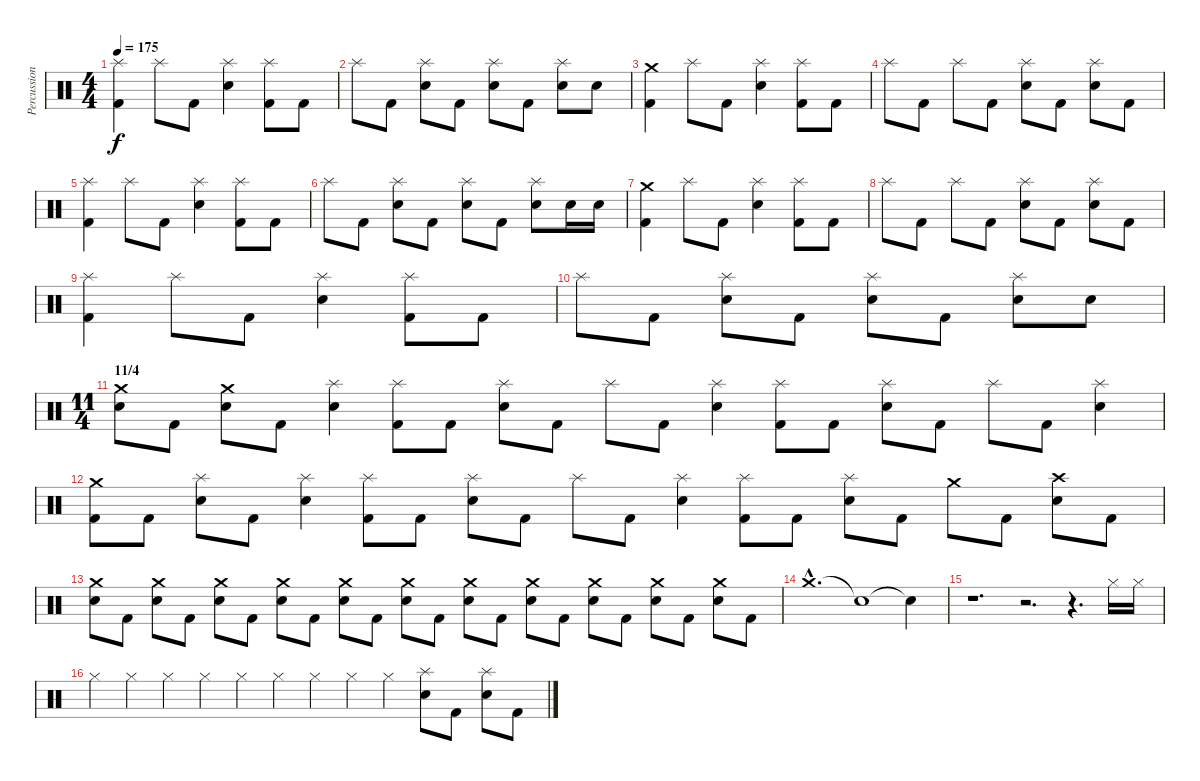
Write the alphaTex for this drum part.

\track ("Percussion" "Percussion") {instrument percussion}
\staff {score}
\articulation defaults
\ts (4 4)
\tempo 175
\clef neutral
\ks c
("Splash (hit)" "Kick (hit) 2").4{dy f} "Splash (hit)".8 "Kick (hit) 2".8 ("Splash (hit)" "Electric Snare (hit)").4 ("Splash (hit)" "Kick (hit) 2").8 "Kick (hit) 2".8 |
"Splash (hit)".8 "Kick (hit) 2".8 ("Splash (hit)" "Electric Snare (hit)").8 "Kick (hit) 2".8 ("Splash (hit)" "Electric Snare (hit)").8 "Kick (hit) 2".8 ("Splash (hit)" "Electric Snare (hit)").8 "Electric Snare (hit)".8 |
("Crash medium (hit)" "Kick (hit) 2").4 "Splash (hit)".8 "Kick (hit) 2".8 ("Splash (hit)" "Electric Snare (hit)").4 ("Splash (hit)" "Kick (hit) 2").8 "Kick (hit) 2".8 |
"Splash (hit)".8 "Kick (hit) 2".8 "Splash (hit)".8 "Kick (hit) 2".8 ("Splash (hit)" "Electric Snare (hit)").8 "Kick (hit) 2".8 ("Splash (hit)" "Electric Snare (hit)").8 "Kick (hit) 2".8 |
("Splash (hit)" "Kick (hit) 2").4 "Splash (hit)".8 "Kick (hit) 2".8 ("Splash (hit)" "Electric Snare (hit)").4 ("Splash (hit)" "Kick (hit) 2").8 "Kick (hit) 2".8 |
"Splash (hit)".8 "Kick (hit) 2".8 ("Splash (hit)" "Electric Snare (hit)").8 "Kick (hit) 2".8 ("Splash (hit)" "Electric Snare (hit)").8 "Kick (hit) 2".8 ("Splash (hit)" "Electric Snare (hit)").8 "Electric Snare (hit)".16 "Electric Snare (hit)".16 |
("Crash medium (hit)" "Kick (hit) 2").4 "Splash (hit)".8 "Kick (hit) 2".8 ("Splash (hit)" "Electric Snare (hit)").4 ("Splash (hit)" "Kick (hit) 2").8 "Kick (hit) 2".8 |
"Splash (hit)".8 "Kick (hit) 2".8 "Splash (hit)".8 "Kick (hit) 2".8 ("Splash (hit)" "Electric Snare (hit)").8 "Kick (hit) 2".8 ("Splash (hit)" "Electric Snare (hit)").8 "Kick (hit) 2".8 |
("Splash (hit)" "Kick (hit) 2").4 "Splash (hit)".8 "Kick (hit) 2".8 ("Splash (hit)" "Electric Snare (hit)").4 ("Splash (hit)" "Kick (hit) 2").8 "Kick (hit) 2".8 |
"Splash (hit)".8 "Kick (hit) 2".8 ("Splash (hit)" "Electric Snare (hit)").8 "Kick (hit) 2".8 ("Splash (hit)" "Electric Snare (hit)").8 "Kick (hit) 2".8 ("Splash (hit)" "Electric Snare (hit)").8 "Electric Snare (hit)".8 |
\ts (11 4)
\section ("" "11/4")
("Crash medium (hit)" "Electric Snare (hit)").8 "Kick (hit) 2".8 ("Crash medium (hit)" "Electric Snare (hit)").8 "Kick (hit) 2".8 ("Splash (hit)" "Electric Snare (hit)").4 ("Splash (hit)" "Kick (hit) 2").8 "Kick (hit) 2".8 ("Splash (hit)" "Electric Snare (hit)").8 "Kick (hit) 2".8 "Splash (hit)".8 "Kick (hit) 2".8 ("Splash (hit)" "Electric Snare (hit)").4 ("Splash (hit)" "Kick (hit) 2").8 "Kick (hit) 2".8 ("Splash (hit)" "Electric Snare (hit)").8 "Kick (hit) 2".8 "Splash (hit)".8 "Kick (hit) 2".8 ("Splash (hit)" "Electric Snare (hit)").4 |
("Crash medium (hit)" "Kick (hit) 2").8 "Kick (hit) 2".8 ("Splash (hit)" "Electric Snare (hit)").8 "Kick (hit) 2".8 ("Splash (hit)" "Electric Snare (hit)").4 ("Splash (hit)" "Kick (hit) 2").8 "Kick (hit) 2".8 ("Splash (hit)" "Electric Snare (hit)").8 "Kick (hit) 2".8 "Splash (hit)".8 "Kick (hit) 2".8 ("Splash (hit)" "Electric Snare (hit)").4 ("Splash (hit)" "Kick (hit) 2").8 "Kick (hit) 2".8 ("Splash (hit)" "Electric Snare (hit)").8 "Kick (hit) 2".8 "Crash medium (hit)".8 "Kick (hit) 2".8 ("Crash high (hit)" "Electric Snare (hit)").8 "Kick (hit) 2".8 |
("Crash medium (hit)" "Electric Snare (hit)").8 "Kick (hit) 2".8 ("Crash medium (hit)" "Electric Snare (hit)").8 "Kick (hit) 2".8 ("Crash medium (hit)" "Electric Snare (hit)").8 "Kick (hit) 2".8 ("Crash medium (hit)" "Electric Snare (hit)").8 "Kick (hit) 2".8 ("Crash medium (hit)" "Electric Snare (hit)").8 "Kick (hit) 2".8 ("Crash medium (hit)" "Electric Snare (hit)").8 "Kick (hit) 2".8 ("Crash medium (hit)" "Electric Snare (hit)").8 "Kick (hit) 2".8 ("Crash medium (hit)" "Electric Snare (hit)").8 "Kick (hit) 2".8 ("Crash medium (hit)" "Electric Snare (hit)").8 "Kick (hit) 2".8 ("Crash medium (hit)" "Electric Snare (hit)").8 "Kick (hit) 2".8 ("Crash medium (hit)" "Electric Snare (hit)").8 "Kick (hit) 2".8 |
"Crash medium (hit)"{hac}.1{d} "Snare (hit)"{t}.1 "Snare (hit)"{t}.4 |
r.1{d} r.2{d} r.4{d} "Hi-Hat (closed)".16 "Hi-Hat (closed)".16 |
"Hi-Hat (closed)".4 "Hi-Hat (closed)".4 "Hi-Hat (closed)".4 "Hi-Hat (closed)".4 "Hi-Hat (closed)".4 "Hi-Hat (closed)".4 "Hi-Hat (closed)".4 "Hi-Hat (closed)".4 "Hi-Hat (closed)".4 ("Splash (hit)" "Electric Snare (hit)").8 "Kick (hit) 2".8 ("Splash (hit)" "Electric Snare (hit)").8 "Kick (hit) 2".8
